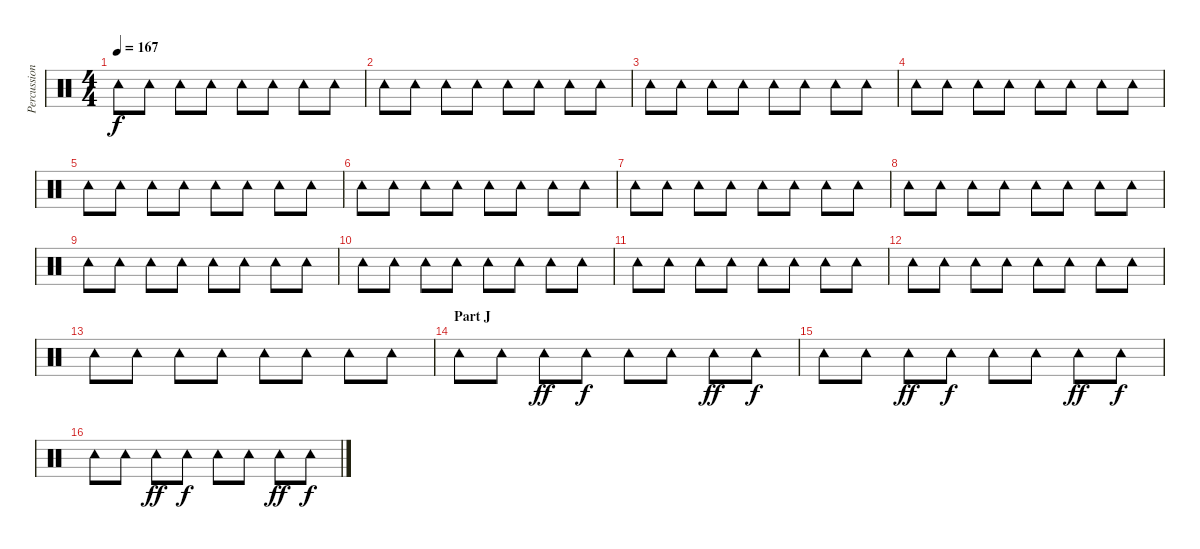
\track ("Percussion" "Percussion") {instrument percussion}
\staff {score}
\articulation defaults
\ts (4 4)
\tempo 167
\clef neutral
\ks c "Tambourine (hit)".8{dy f} "Tambourine (hit)".8 "Tambourine (hit)".8 "Tambourine (hit)".8 "Tambourine (hit)".8 "Tambourine (hit)".8 "Tambourine (hit)".8 "Tambourine (hit)".8
|
"Tambourine (hit)".8 "Tambourine (hit)".8 "Tambourine (hit)".8 "Tambourine (hit)".8 "Tambourine (hit)".8 "Tambourine (hit)".8 "Tambourine (hit)".8 "Tambourine (hit)".8 |
"Tambourine (hit)".8 "Tambourine (hit)".8 "Tambourine (hit)".8 "Tambourine (hit)".8 "Tambourine (hit)".8 "Tambourine (hit)".8 "Tambourine (hit)".8 "Tambourine (hit)".8 |
"Tambourine (hit)".8 "Tambourine (hit)".8 "Tambourine (hit)".8 "Tambourine (hit)".8 "Tambourine (hit)".8 "Tambourine (hit)".8 "Tambourine (hit)".8 "Tambourine (hit)".8 |
"Tambourine (hit)".8 "Tambourine (hit)".8 "Tambourine (hit)".8 "Tambourine (hit)".8 "Tambourine (hit)".8 "Tambourine (hit)".8 "Tambourine (hit)".8 "Tambourine (hit)".8 |
"Tambourine (hit)".8 "Tambourine (hit)".8 "Tambourine (hit)".8 "Tambourine (hit)".8 "Tambourine (hit)".8 "Tambourine (hit)".8 "Tambourine (hit)".8 "Tambourine (hit)".8 |
"Tambourine (hit)".8 "Tambourine (hit)".8 "Tambourine (hit)".8 "Tambourine (hit)".8 "Tambourine (hit)".8 "Tambourine (hit)".8 "Tambourine (hit)".8 "Tambourine (hit)".8 |
"Tambourine (hit)".8 "Tambourine (hit)".8 "Tambourine (hit)".8 "Tambourine (hit)".8 "Tambourine (hit)".8 "Tambourine (hit)".8 "Tambourine (hit)".8 "Tambourine (hit)".8 |
"Tambourine (hit)".8 "Tambourine (hit)".8 "Tambourine (hit)".8 "Tambourine (hit)".8 "Tambourine (hit)".8 "Tambourine (hit)".8 "Tambourine (hit)".8 "Tambourine (hit)".8 |
"Tambourine (hit)".8 "Tambourine (hit)".8 "Tambourine (hit)".8 "Tambourine (hit)".8 "Tambourine (hit)".8 "Tambourine (hit)".8 "Tambourine (hit)".8 "Tambourine (hit)".8 |
"Tambourine (hit)".8 "Tambourine (hit)".8 "Tambourine (hit)".8 "Tambourine (hit)".8 "Tambourine (hit)".8 "Tambourine (hit)".8 "Tambourine (hit)".8 "Tambourine (hit)".8 |
"Tambourine (hit)".8 "Tambourine (hit)".8 "Tambourine (hit)".8 "Tambourine (hit)".8 "Tambourine (hit)".8 "Tambourine (hit)".8 "Tambourine (hit)".8 "Tambourine (hit)".8 |
"Tambourine (hit)".8 "Tambourine (hit)".8 "Tambourine (hit)".8 "Tambourine (hit)".8 "Tambourine (hit)".8 "Tambourine (hit)".8 "Tambourine (hit)".8 "Tambourine (hit)".8 |
\section ("" "Part J")
"Tambourine (hit)".8 "Tambourine (hit)".8 "Tambourine (hit)".8{dy ff} "Tambourine (hit)".8{dy f} "Tambourine (hit)".8 "Tambourine (hit)".8 "Tambourine (hit)".8{dy ff} "Tambourine (hit)".8{dy f} |
"Tambourine (hit)".8 "Tambourine (hit)".8 "Tambourine (hit)".8{dy ff} "Tambourine (hit)".8{dy f} "Tambourine (hit)".8 "Tambourine (hit)".8 "Tambourine (hit)".8{dy ff} "Tambourine (hit)".8{dy f} |
"Tambourine (hit)".8 "Tambourine (hit)".8 "Tambourine (hit)".8{dy ff} "Tambourine (hit)".8{dy f} "Tambourine (hit)".8 "Tambourine (hit)".8 "Tambourine (hit)".8{dy ff} "Tambourine (hit)".8{dy f}
